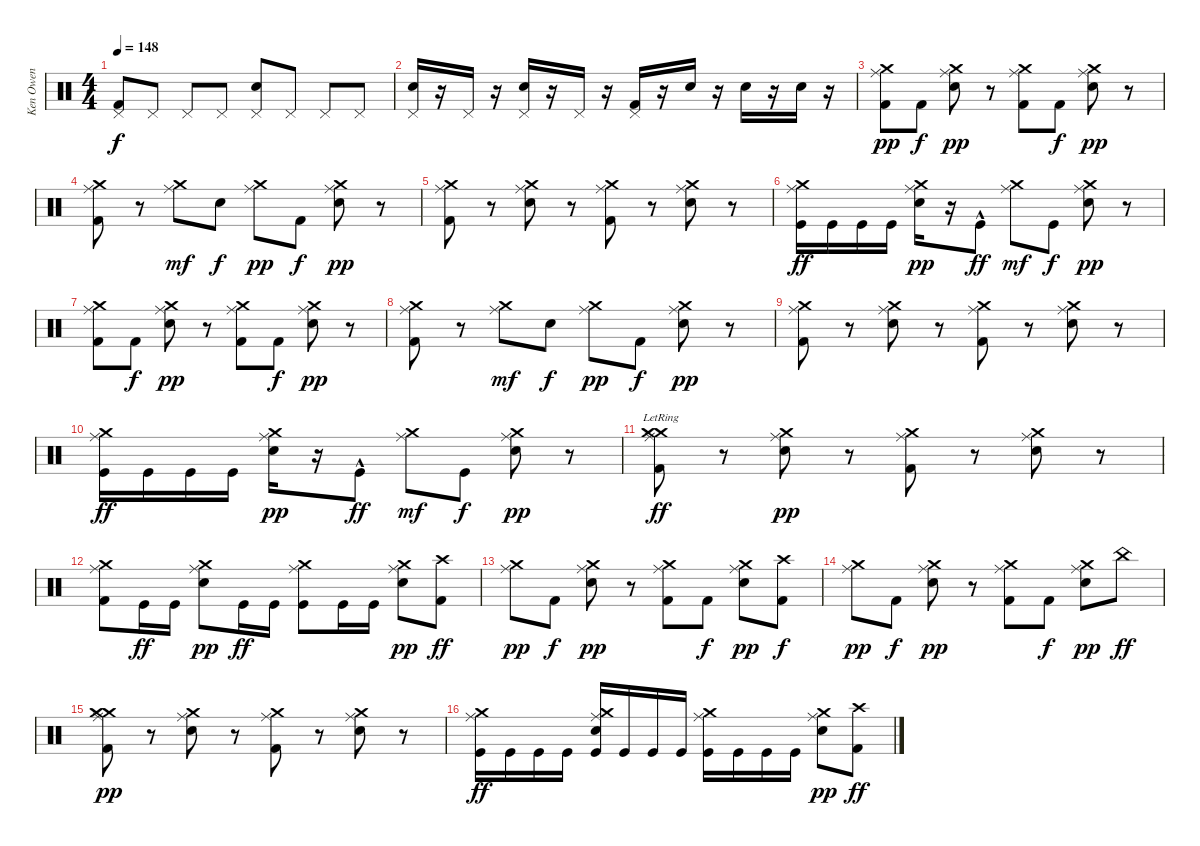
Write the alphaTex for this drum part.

\track ("Ken Owen" "Ken Owen") {instrument percussion}
\staff {score}
\articulation defaults
\ts (4 4)
\tempo 148
\clef neutral
\ks c
("Pedal Hi-Hat (hit)" "Kick (hit) 2").8{dy f} "Pedal Hi-Hat (hit)".8 "Pedal Hi-Hat (hit)".8 "Pedal Hi-Hat (hit)".8 ("Pedal Hi-Hat (hit)" "Snare (hit) 2").8 "Pedal Hi-Hat (hit)".8 "Pedal Hi-Hat (hit)".8 "Pedal Hi-Hat (hit)".8 |
("Pedal Hi-Hat (hit)" "Snare (hit) 2").16 r.16 "Pedal Hi-Hat (hit)".16 r.16 ("Pedal Hi-Hat (hit)" "Snare (hit) 2").16 r.16 "Pedal Hi-Hat (hit)".16 r.16 ("Pedal Hi-Hat (hit)" "Kick (hit) 2").16 r.16 "Snare (hit) 2".16 r.16 "Snare (hit) 2".16 r.16 "Snare (hit) 2".16 r.16 |
("Crash medium (hit)" "Ride (middle)" "Kick (hit) 2").8{dy pp} "Kick (hit) 2".8{dy f} ("Crash medium (hit)" "Ride (middle)" "Snare (hit) 2").8{dy pp} r.8 ("Crash medium (hit)" "Ride (middle)" "Kick (hit) 2").8 "Kick (hit) 2".8{dy f} ("Crash medium (hit)" "Ride (middle)" "Snare (hit) 2").8{dy pp} r.8 |
("Crash medium (hit)" "Ride (middle)" "Kick (hit) 2").8 r.8 ("Crash medium (hit)" "Ride (middle)").8{dy mf} "Snare (hit) 2".8{dy f} ("Crash medium (hit)" "Ride (middle)").8{dy pp} "Kick (hit) 2".8{dy f} ("Crash medium (hit)" "Ride (middle)" "Snare (hit) 2").8{dy pp} r.8 |
("Crash medium (hit)" "Ride (middle)" "Kick (hit) 2").8 r.8 ("Crash medium (hit)" "Ride (middle)" "Snare (hit) 2").8 r.8 ("Crash medium (hit)" "Ride (middle)" "Kick (hit) 2").8 r.8 ("Crash medium (hit)" "Ride (middle)" "Snare (hit) 2").8 r.8 |
("Crash medium (hit)" "Ride (middle)" "Kick (hit)").16{dy ff} "Kick (hit)".16 "Kick (hit)".16 "Kick (hit)".16 ("Crash medium (hit)" "Ride (middle)" "Snare (hit) 2").16{dy pp} r.16 "Kick (hit)"{hac}.8{dy ff} ("Crash medium (hit)" "Ride (middle)").8{dy mf} "Kick (hit)".8{dy f} ("Crash medium (hit)" "Ride (middle)" "Snare (hit) 2").8{dy pp} r.8 |
("Crash medium (hit)" "Ride (middle)" "Kick (hit) 2").8 "Kick (hit) 2".8{dy f} ("Crash medium (hit)" "Ride (middle)" "Snare (hit) 2").8{dy pp} r.8 ("Crash medium (hit)" "Ride (middle)" "Kick (hit) 2").8 "Kick (hit) 2".8{dy f} ("Crash medium (hit)" "Ride (middle)" "Snare (hit) 2").8{dy pp} r.8 |
("Crash medium (hit)" "Ride (middle)" "Kick (hit) 2").8 r.8 ("Crash medium (hit)" "Ride (middle)").8{dy mf} "Snare (hit) 2".8{dy f} ("Crash medium (hit)" "Ride (middle)").8{dy pp} "Kick (hit) 2".8{dy f} ("Crash medium (hit)" "Ride (middle)" "Snare (hit) 2").8{dy pp} r.8 |
("Crash medium (hit)" "Ride (middle)" "Kick (hit) 2").8 r.8 ("Crash medium (hit)" "Ride (middle)" "Snare (hit) 2").8 r.8 ("Crash medium (hit)" "Ride (middle)" "Kick (hit) 2").8 r.8 ("Crash medium (hit)" "Ride (middle)" "Snare (hit) 2").8 r.8 |
("Crash medium (hit)" "Ride (middle)" "Kick (hit)").16{dy ff} "Kick (hit)".16 "Kick (hit)".16 "Kick (hit)".16 ("Crash medium (hit)" "Ride (middle)" "Snare (hit) 2").16{dy pp} r.16 "Kick (hit)"{hac}.8{dy ff} ("Crash medium (hit)" "Ride (middle)").8{dy mf} "Kick (hit)".8{dy f} ("Crash medium (hit)" "Ride (middle)" "Snare (hit) 2").8{dy pp} r.8 |
("Crash medium (hit)" "Ride (middle)" "Kick (hit) 2" "Crash medium (hit)"{lr}).8{dy ff} r.8 ("Crash medium (hit)" "Ride (middle)" "Snare (hit) 2").8{dy pp} r.8 ("Crash medium (hit)" "Ride (middle)" "Kick (hit) 2").8 r.8 ("Crash medium (hit)" "Ride (middle)" "Snare (hit) 2").8 r.8 |
("Crash medium (hit)" "Ride (middle)" "Kick (hit) 2").8 "Kick (hit)".16{dy ff} "Kick (hit)".16 ("Crash medium (hit)" "Ride (middle)" "Snare (hit) 2").8{dy pp} "Kick (hit)".16{dy ff} "Kick (hit)".16 ("Crash medium (hit)" "Ride (middle)" "Kick (hit)").8 "Kick (hit)".16 "Kick (hit)".16 ("Crash medium (hit)" "Ride (middle)" "Snare (hit) 2").8{dy pp} ("Kick (hit) 2" "Crash high (hit)").8{dy ff} |
("Crash medium (hit)" "Ride (middle)").8{dy pp} "Kick (hit) 2".8{dy f} ("Crash medium (hit)" "Ride (middle)" "Snare (hit) 2").8{dy pp} r.8 ("Crash medium (hit)" "Ride (middle)" "Kick (hit) 2").8 "Kick (hit) 2".8{dy f} ("Crash medium (hit)" "Ride (middle)" "Snare (hit) 2").8{dy pp} ("Kick (hit) 2" "Crash high (hit)").8{dy f} |
("Crash medium (hit)" "Ride (middle)").8{dy pp} "Kick (hit) 2".8{dy f} ("Crash medium (hit)" "Ride (middle)" "Snare (hit) 2").8{dy pp} r.8 ("Crash medium (hit)" "Ride (middle)" "Kick (hit) 2").8 "Kick (hit) 2".8{dy f} ("Crash medium (hit)" "Ride (middle)" "Snare (hit) 2").8{dy pp} "China (hit)".8{dy ff} |
("Crash medium (hit)" "Ride (middle)" "Kick (hit) 2" "Crash medium (hit)").8{dy pp} r.8 ("Crash medium (hit)" "Ride (middle)" "Snare (hit) 2").8 r.8 ("Crash medium (hit)" "Ride (middle)" "Kick (hit) 2").8 r.8 ("Crash medium (hit)" "Ride (middle)" "Snare (hit) 2").8 r.8 |
("Crash medium (hit)" "Ride (middle)" "Kick (hit)").16{dy ff} "Kick (hit)".16 "Kick (hit)".16 "Kick (hit)".16 ("Crash medium (hit)" "Ride (middle)" "Kick (hit)" "Snare (hit) 2").16 "Kick (hit)".16 "Kick (hit)".16 "Kick (hit)".16 ("Crash medium (hit)" "Ride (middle)" "Kick (hit)").16 "Kick (hit)".16 "Kick (hit)".16 "Kick (hit)".16 ("Crash medium (hit)" "Ride (middle)" "Snare (hit) 2").8{dy pp} ("Kick (hit) 2" "Crash high (hit)").8{dy ff}
